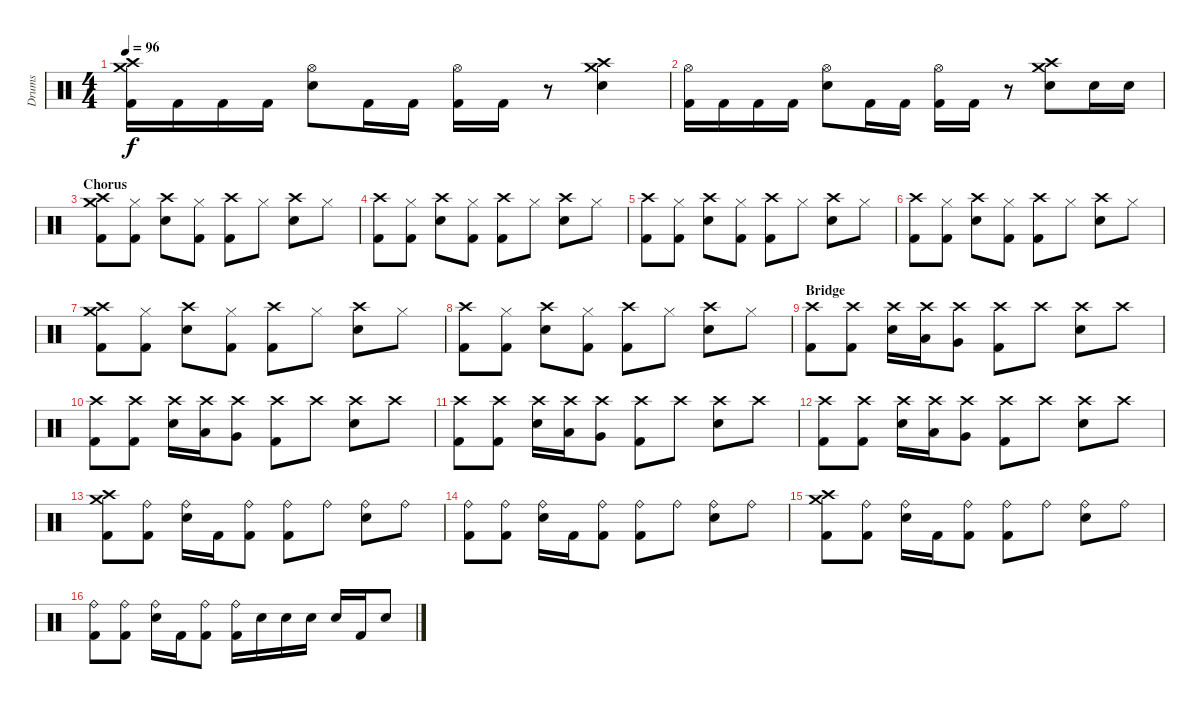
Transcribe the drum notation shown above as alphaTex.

\track ("Drums" "Drums") {instrument percussion}
\staff {score}
\articulation defaults
\ts (4 4)
\tempo 96
\clef neutral
\ks c
("Crash high (hit)" "Crash medium (hit)" "Kick (hit) 2").16{dy f} "Kick (hit) 2".16 "Kick (hit) 2".16 "Kick (hit) 2".16 ("Hi-Hat (open)" "Electric Snare (hit)").8 "Kick (hit) 2".16 "Kick (hit) 2".16 ("Hi-Hat (open)" "Kick (hit) 2").16 "Kick (hit) 2".16 r.8 ("Crash high (hit)" "Crash medium (hit)" "Electric Snare (hit)").4 |
("Hi-Hat (open)" "Kick (hit) 2").16 "Kick (hit) 2".16 "Kick (hit) 2".16 "Kick (hit) 2".16 ("Hi-Hat (open)" "Electric Snare (hit)").8 "Kick (hit) 2".16 "Kick (hit) 2".16 ("Hi-Hat (open)" "Kick (hit) 2").16 "Kick (hit) 2".16 r.8 ("Crash high (hit)" "Crash medium (hit)" "Electric Snare (hit)").8 "Electric Snare (hit)".16 "Electric Snare (hit)".16 |
\section ("" "Chorus")
("Crash high (hit)" "Crash medium (hit)" "Kick (hit) 2").8 ("Hi-Hat (closed)" "Kick (hit) 2").8 ("Crash high (hit)" "Electric Snare (hit)").8 ("Hi-Hat (closed)" "Kick (hit) 2").8 ("Crash high (hit)" "Kick (hit) 2").8 "Hi-Hat (closed)".8 ("Crash high (hit)" "Electric Snare (hit)").8 "Hi-Hat (closed)".8 |
("Crash high (hit)" "Kick (hit) 2").8 ("Hi-Hat (closed)" "Kick (hit) 2").8 ("Crash high (hit)" "Electric Snare (hit)").8 ("Hi-Hat (closed)" "Kick (hit) 2").8 ("Crash high (hit)" "Kick (hit) 2").8 "Hi-Hat (closed)".8 ("Crash high (hit)" "Electric Snare (hit)").8 "Hi-Hat (closed)".8 |
("Crash high (hit)" "Kick (hit) 2").8 ("Hi-Hat (closed)" "Kick (hit) 2").8 ("Crash high (hit)" "Electric Snare (hit)").8 ("Hi-Hat (closed)" "Kick (hit) 2").8 ("Crash high (hit)" "Kick (hit) 2").8 "Hi-Hat (closed)".8 ("Crash high (hit)" "Electric Snare (hit)").8 "Hi-Hat (closed)".8 |
("Crash high (hit)" "Kick (hit) 2").8 ("Hi-Hat (closed)" "Kick (hit) 2").8 ("Crash high (hit)" "Electric Snare (hit)").8 ("Hi-Hat (closed)" "Kick (hit) 2").8 ("Crash high (hit)" "Kick (hit) 2").8 "Hi-Hat (closed)".8 ("Crash high (hit)" "Electric Snare (hit)").8 "Hi-Hat (closed)".8 |
("Crash high (hit)" "Crash medium (hit)" "Kick (hit) 2").8 ("Hi-Hat (closed)" "Kick (hit) 2").8 ("Crash high (hit)" "Electric Snare (hit)").8 ("Hi-Hat (closed)" "Kick (hit) 2").8 ("Crash high (hit)" "Kick (hit) 2").8 "Hi-Hat (closed)".8 ("Crash high (hit)" "Electric Snare (hit)").8 "Hi-Hat (closed)".8 |
("Crash high (hit)" "Kick (hit) 2").8 ("Hi-Hat (closed)" "Kick (hit) 2").8 ("Crash high (hit)" "Electric Snare (hit)").8 ("Hi-Hat (closed)" "Kick (hit) 2").8 ("Crash high (hit)" "Kick (hit) 2").8 "Hi-Hat (closed)".8 ("Crash high (hit)" "Electric Snare (hit)").8 "Hi-Hat (closed)".8 |
\section ("" "Bridge")
("Crash high (hit)" "Kick (hit) 2").8 ("Crash high (hit)" "Kick (hit) 2").8 ("Crash high (hit)" "Electric Snare (hit)").16 ("Crash high (hit)" "Low Tom (hit)").16 ("Crash high (hit)" "Very Low Tom (hit)").8 ("Crash high (hit)" "Kick (hit) 2").8 "Crash high (hit)".8 ("Crash high (hit)" "Electric Snare (hit)").8 "Crash high (hit)".8 |
("Crash high (hit)" "Kick (hit) 2").8 ("Crash high (hit)" "Kick (hit) 2").8 ("Crash high (hit)" "Electric Snare (hit)").16 ("Crash high (hit)" "Low Tom (hit)").16 ("Crash high (hit)" "Very Low Tom (hit)").8 ("Crash high (hit)" "Kick (hit) 2").8 "Crash high (hit)".8 ("Crash high (hit)" "Electric Snare (hit)").8 "Crash high (hit)".8 |
("Crash high (hit)" "Kick (hit) 2").8 ("Crash high (hit)" "Kick (hit) 2").8 ("Crash high (hit)" "Electric Snare (hit)").16 ("Crash high (hit)" "Low Tom (hit)").16 ("Crash high (hit)" "Very Low Tom (hit)").8 ("Crash high (hit)" "Kick (hit) 2").8 "Crash high (hit)".8 ("Crash high (hit)" "Electric Snare (hit)").8 "Crash high (hit)".8 |
("Crash high (hit)" "Kick (hit) 2").8 ("Crash high (hit)" "Kick (hit) 2").8 ("Crash high (hit)" "Electric Snare (hit)").16 ("Crash high (hit)" "Low Tom (hit)").16 ("Crash high (hit)" "Very Low Tom (hit)").8 ("Crash high (hit)" "Kick (hit) 2").8 "Crash high (hit)".8 ("Crash high (hit)" "Electric Snare (hit)").8 "Crash high (hit)".8 |
("Crash high (hit)" "Crash medium (hit)" "Kick (hit) 2").8 ("Ride (bell)" "Kick (hit) 2").8 ("Ride (bell)" "Electric Snare (hit)").16 "Kick (hit) 2".16 ("Ride (bell)" "Kick (hit) 2").8 ("Ride (bell)" "Kick (hit) 2").8 "Ride (bell)".8 ("Ride (bell)" "Electric Snare (hit)").8 "Ride (bell)".8 |
("Ride (bell)" "Kick (hit) 2").8 ("Ride (bell)" "Kick (hit) 2").8 ("Ride (bell)" "Electric Snare (hit)").16 "Kick (hit) 2".16 ("Ride (bell)" "Kick (hit) 2").8 ("Ride (bell)" "Kick (hit) 2").8 "Ride (bell)".8 ("Ride (bell)" "Electric Snare (hit)").8 "Ride (bell)".8 |
("Crash high (hit)" "Crash medium (hit)" "Kick (hit) 2").8 ("Ride (bell)" "Kick (hit) 2").8 ("Ride (bell)" "Electric Snare (hit)").16 "Kick (hit) 2".16 ("Ride (bell)" "Kick (hit) 2").8 ("Ride (bell)" "Kick (hit) 2").8 "Ride (bell)".8 ("Ride (bell)" "Electric Snare (hit)").8 "Ride (bell)".8 |
("Ride (bell)" "Kick (hit) 2").8 ("Ride (bell)" "Kick (hit) 2").8 ("Ride (bell)" "Electric Snare (hit)").16 "Kick (hit) 2".16 ("Ride (bell)" "Kick (hit) 2").8 ("Ride (bell)" "Kick (hit) 2").16 "Electric Snare (hit)".16 "Electric Snare (hit)".16 "Electric Snare (hit)".16 "Electric Snare (hit)".16 "Kick (hit) 2".16 "Electric Snare (hit)".8
